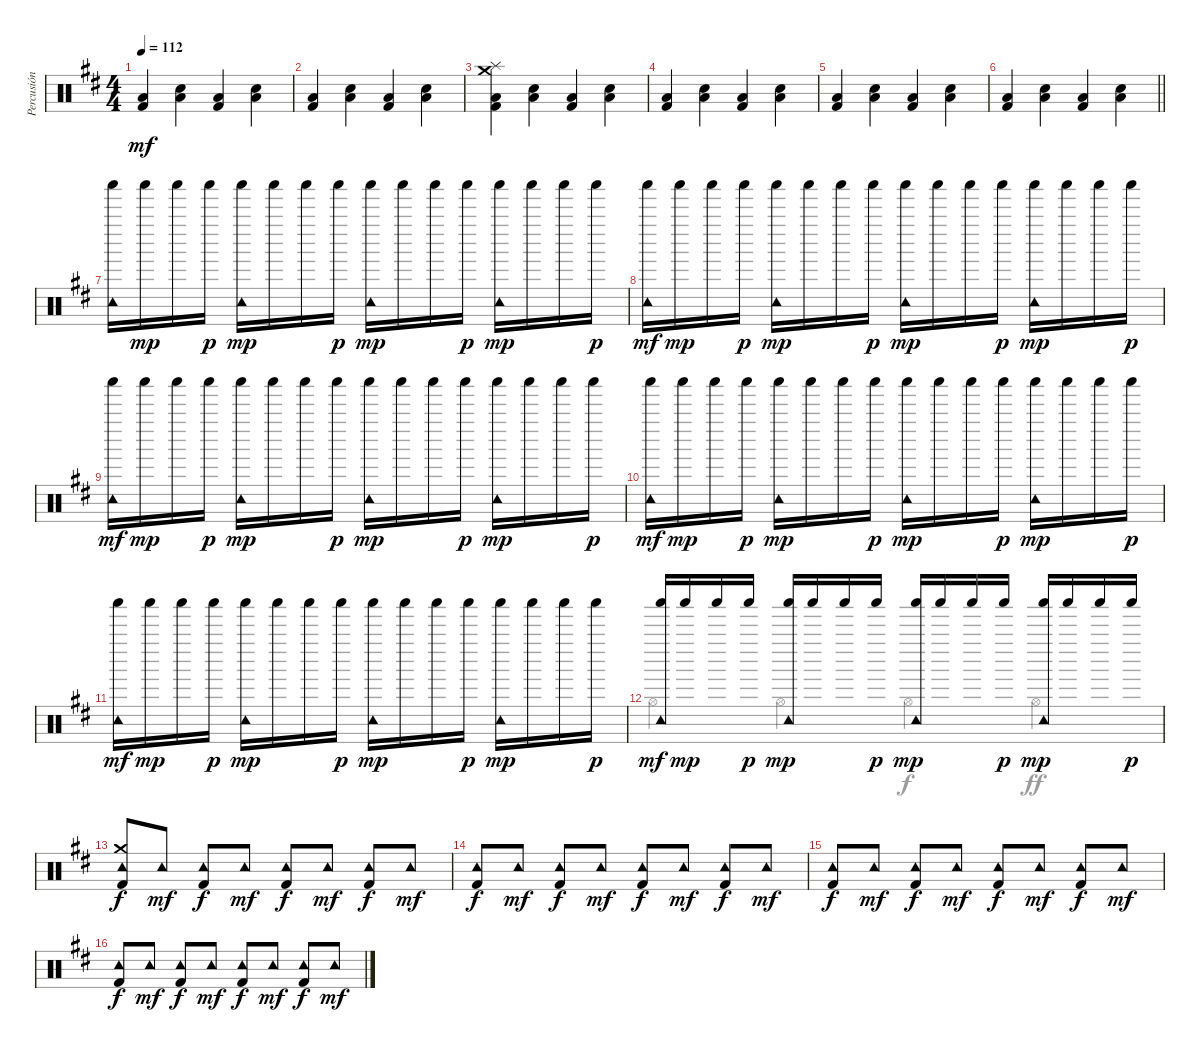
\track ("Percusión" "Percusión") {instrument percussion}
\staff {score}
\articulation defaults
\voice
\ts (4 4)
\tempo 112
\clef neutral
\ks d
("Low Floor Tom (hit)" "Kick (hit) 2").4{dy mf} ("Low Floor Tom (hit)" "Snare (hit) 2").4 ("Low Floor Tom (hit)" "Kick (hit) 2").4 ("Low Floor Tom (hit)" "Snare (hit) 2").4 |
("Low Floor Tom (hit)" "Kick (hit) 2").4 ("Low Floor Tom (hit)" "Snare (hit) 2").4 ("Low Floor Tom (hit)" "Kick (hit) 2").4 ("Low Floor Tom (hit)" "Snare (hit) 2").4 |
("Crash medium (hit)" "Splash (hit)" "Low Floor Tom (hit)" "Kick (hit) 2").4 ("Low Floor Tom (hit)" "Snare (hit) 2").4 ("Low Floor Tom (hit)" "Kick (hit) 2").4 ("Low Floor Tom (hit)" "Snare (hit) 2").4 |
("Low Floor Tom (hit)" "Kick (hit) 2").4 ("Low Floor Tom (hit)" "Snare (hit) 2").4 ("Low Floor Tom (hit)" "Kick (hit) 2").4 ("Low Floor Tom (hit)" "Snare (hit) 2").4 |
("Low Floor Tom (hit)" "Kick (hit) 2").4 ("Low Floor Tom (hit)" "Snare (hit) 2").4 ("Low Floor Tom (hit)" "Kick (hit) 2").4 ("Low Floor Tom (hit)" "Snare (hit) 2").4 |
\barLineRight lightlight
("Low Floor Tom (hit)" "Kick (hit) 2").4 ("Low Floor Tom (hit)" "Snare (hit) 2").4 ("Low Floor Tom (hit)" "Kick (hit) 2").4 ("Low Floor Tom (hit)" "Snare (hit) 2").4 |
("Tambourine (hit)" "Shaker (hit)").16 "Shaker (hit)".16{dy mp} "Shaker (hit)".16 "Shaker (hit)".16{dy p} ("Tambourine (hit)" "Shaker (hit)").16{dy mp} "Shaker (hit)".16 "Shaker (hit)".16 "Shaker (hit)".16{dy p} ("Tambourine (hit)" "Shaker (hit)").16{dy mp} "Shaker (hit)".16 "Shaker (hit)".16 "Shaker (hit)".16{dy p} ("Tambourine (hit)" "Shaker (hit)").16{dy mp} "Shaker (hit)".16 "Shaker (hit)".16 "Shaker (hit)".16{dy p} |
("Tambourine (hit)" "Shaker (hit)").16{dy mf} "Shaker (hit)".16{dy mp} "Shaker (hit)".16 "Shaker (hit)".16{dy p} ("Tambourine (hit)" "Shaker (hit)").16{dy mp} "Shaker (hit)".16 "Shaker (hit)".16 "Shaker (hit)".16{dy p} ("Tambourine (hit)" "Shaker (hit)").16{dy mp} "Shaker (hit)".16 "Shaker (hit)".16 "Shaker (hit)".16{dy p} ("Tambourine (hit)" "Shaker (hit)").16{dy mp} "Shaker (hit)".16 "Shaker (hit)".16 "Shaker (hit)".16{dy p} |
("Tambourine (hit)" "Shaker (hit)").16{dy mf} "Shaker (hit)".16{dy mp} "Shaker (hit)".16 "Shaker (hit)".16{dy p} ("Tambourine (hit)" "Shaker (hit)").16{dy mp} "Shaker (hit)".16 "Shaker (hit)".16 "Shaker (hit)".16{dy p} ("Tambourine (hit)" "Shaker (hit)").16{dy mp} "Shaker (hit)".16 "Shaker (hit)".16 "Shaker (hit)".16{dy p} ("Tambourine (hit)" "Shaker (hit)").16{dy mp} "Shaker (hit)".16 "Shaker (hit)".16 "Shaker (hit)".16{dy p} |
("Tambourine (hit)" "Shaker (hit)").16{dy mf} "Shaker (hit)".16{dy mp} "Shaker (hit)".16 "Shaker (hit)".16{dy p} ("Tambourine (hit)" "Shaker (hit)").16{dy mp} "Shaker (hit)".16 "Shaker (hit)".16 "Shaker (hit)".16{dy p} ("Tambourine (hit)" "Shaker (hit)").16{dy mp} "Shaker (hit)".16 "Shaker (hit)".16 "Shaker (hit)".16{dy p} ("Tambourine (hit)" "Shaker (hit)").16{dy mp} "Shaker (hit)".16 "Shaker (hit)".16 "Shaker (hit)".16{dy p} |
("Tambourine (hit)" "Shaker (hit)").16{dy mf} "Shaker (hit)".16{dy mp} "Shaker (hit)".16 "Shaker (hit)".16{dy p} ("Tambourine (hit)" "Shaker (hit)").16{dy mp} "Shaker (hit)".16 "Shaker (hit)".16 "Shaker (hit)".16{dy p} ("Tambourine (hit)" "Shaker (hit)").16{dy mp} "Shaker (hit)".16 "Shaker (hit)".16 "Shaker (hit)".16{dy p} ("Tambourine (hit)" "Shaker (hit)").16{dy mp} "Shaker (hit)".16 "Shaker (hit)".16 "Shaker (hit)".16{dy p} |
("Tambourine (hit)" "Shaker (hit)").16{dy mf} "Shaker (hit)".16{dy mp} "Shaker (hit)".16 "Shaker (hit)".16{dy p} ("Tambourine (hit)" "Shaker (hit)").16{dy mp} "Shaker (hit)".16 "Shaker (hit)".16 "Shaker (hit)".16{dy p} ("Tambourine (hit)" "Shaker (hit)").16{dy mp} "Shaker (hit)".16 "Shaker (hit)".16 "Shaker (hit)".16{dy p} ("Tambourine (hit)" "Shaker (hit)").16{dy mp} "Shaker (hit)".16 "Shaker (hit)".16 "Shaker (hit)".16{dy p} |
("Crash medium (hit)" "Tambourine (hit)" "Kick (hit) 2").8{dy f} "Tambourine (hit)".8{dy mf} ("Tambourine (hit)" "Kick (hit) 2").8{dy f} "Tambourine (hit)".8{dy mf} ("Tambourine (hit)" "Kick (hit) 2").8{dy f} "Tambourine (hit)".8{dy mf} ("Tambourine (hit)" "Kick (hit) 2").8{dy f} "Tambourine (hit)".8{dy mf} |
("Tambourine (hit)" "Kick (hit) 2").8{dy f} "Tambourine (hit)".8{dy mf} ("Tambourine (hit)" "Kick (hit) 2").8{dy f} "Tambourine (hit)".8{dy mf} ("Tambourine (hit)" "Kick (hit) 2").8{dy f} "Tambourine (hit)".8{dy mf} ("Tambourine (hit)" "Kick (hit) 2").8{dy f} "Tambourine (hit)".8{dy mf} |
("Tambourine (hit)" "Kick (hit) 2").8{dy f} "Tambourine (hit)".8{dy mf} ("Tambourine (hit)" "Kick (hit) 2").8{dy f} "Tambourine (hit)".8{dy mf} ("Tambourine (hit)" "Kick (hit) 2").8{dy f} "Tambourine (hit)".8{dy mf} ("Tambourine (hit)" "Kick (hit) 2").8{dy f} "Tambourine (hit)".8{dy mf} |
("Tambourine (hit)" "Kick (hit) 2").8{dy f} "Tambourine (hit)".8{dy mf} ("Tambourine (hit)" "Kick (hit) 2").8{dy f} "Tambourine (hit)".8{dy mf} ("Tambourine (hit)" "Kick (hit) 2").8{dy f} "Tambourine (hit)".8{dy mf} ("Tambourine (hit)" "Kick (hit) 2").8{dy f} "Tambourine (hit)".8{dy mf}
\voice
\clef neutral
\ottava regular
\simile none
\ks d
|
|
|
|
|
\barLineRight lightlight
|
|
|
|
|
|
"Hi-Hat (open)".4 "Hi-Hat (open)".4{dy mf} "Hi-Hat (open)".4{dy f} "Hi-Hat (open)".4{dy ff} |
|
|
|
